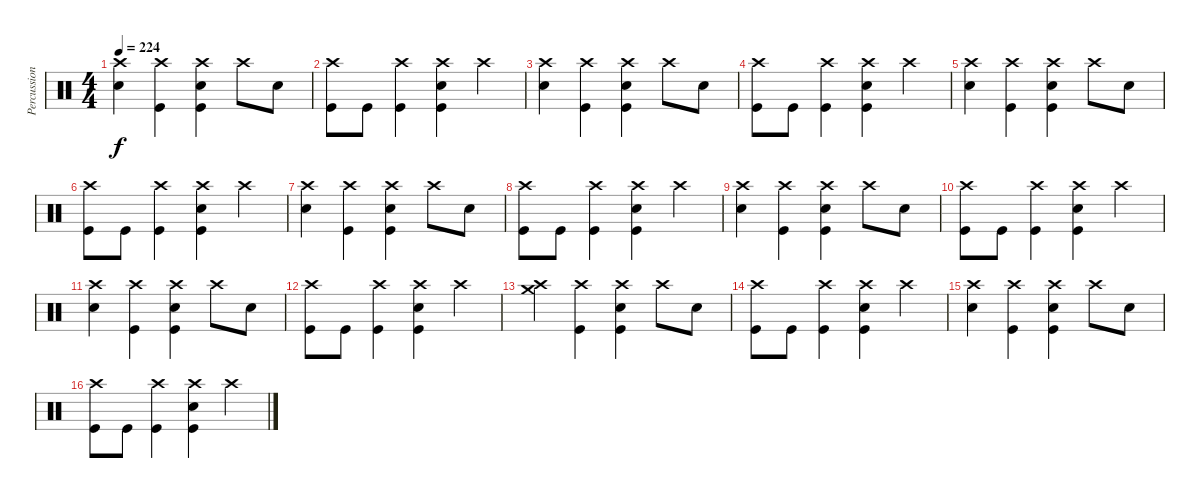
\track ("Percussion" "Percussion") {instrument percussion}
\staff {score}
\articulation defaults
\ts (4 4)
\tempo 224
\clef neutral
\ks c
("Crash high (hit)" "Electric Snare (hit)").4{dy f} ("Crash high (hit)" "Kick (hit)").4 ("Crash high (hit)" "Electric Snare (hit)" "Kick (hit)").4 "Crash high (hit)".8 "Electric Snare (hit)".8 |
("Crash high (hit)" "Kick (hit)").8 "Kick (hit)".8 ("Crash high (hit)" "Kick (hit)").4 ("Crash high (hit)" "Electric Snare (hit)" "Kick (hit)").4 "Crash high (hit)".4 |
("Crash high (hit)" "Electric Snare (hit)").4 ("Crash high (hit)" "Kick (hit)").4 ("Crash high (hit)" "Electric Snare (hit)" "Kick (hit)").4 "Crash high (hit)".8 "Electric Snare (hit)".8 |
("Crash high (hit)" "Kick (hit)").8 "Kick (hit)".8 ("Crash high (hit)" "Kick (hit)").4 ("Crash high (hit)" "Electric Snare (hit)" "Kick (hit)").4 "Crash high (hit)".4 |
("Crash high (hit)" "Electric Snare (hit)").4 ("Crash high (hit)" "Kick (hit)").4 ("Crash high (hit)" "Electric Snare (hit)" "Kick (hit)").4 "Crash high (hit)".8 "Electric Snare (hit)".8 |
("Crash high (hit)" "Kick (hit)").8 "Kick (hit)".8 ("Crash high (hit)" "Kick (hit)").4 ("Crash high (hit)" "Electric Snare (hit)" "Kick (hit)").4 "Crash high (hit)".4 |
("Crash high (hit)" "Electric Snare (hit)").4 ("Crash high (hit)" "Kick (hit)").4 ("Crash high (hit)" "Electric Snare (hit)" "Kick (hit)").4 "Crash high (hit)".8 "Electric Snare (hit)".8 |
("Crash high (hit)" "Kick (hit)").8 "Kick (hit)".8 ("Crash high (hit)" "Kick (hit)").4 ("Crash high (hit)" "Electric Snare (hit)" "Kick (hit)").4 "Crash high (hit)".4 |
("Crash high (hit)" "Electric Snare (hit)").4 ("Crash high (hit)" "Kick (hit)").4 ("Crash high (hit)" "Electric Snare (hit)" "Kick (hit)").4 "Crash high (hit)".8 "Electric Snare (hit)".8 |
("Crash high (hit)" "Kick (hit)").8 "Kick (hit)".8 ("Crash high (hit)" "Kick (hit)").4 ("Crash high (hit)" "Electric Snare (hit)" "Kick (hit)").4 "Crash high (hit)".4 |
("Crash high (hit)" "Electric Snare (hit)").4 ("Crash high (hit)" "Kick (hit)").4 ("Crash high (hit)" "Electric Snare (hit)" "Kick (hit)").4 "Crash high (hit)".8 "Electric Snare (hit)".8 |
("Crash high (hit)" "Kick (hit)").8 "Kick (hit)".8 ("Crash high (hit)" "Kick (hit)").4 ("Crash high (hit)" "Electric Snare (hit)" "Kick (hit)").4 "Crash high (hit)".4 |
("Crash high (hit)" "Crash medium (hit)").4 ("Crash high (hit)" "Kick (hit)").4 ("Crash high (hit)" "Electric Snare (hit)" "Kick (hit)").4 "Crash high (hit)".8 "Electric Snare (hit)".8 |
("Crash high (hit)" "Kick (hit)").8 "Kick (hit)".8 ("Crash high (hit)" "Kick (hit)").4 ("Crash high (hit)" "Electric Snare (hit)" "Kick (hit)").4 "Crash high (hit)".4 |
("Crash high (hit)" "Electric Snare (hit)").4 ("Crash high (hit)" "Kick (hit)").4 ("Crash high (hit)" "Electric Snare (hit)" "Kick (hit)").4 "Crash high (hit)".8 "Electric Snare (hit)".8 |
("Crash high (hit)" "Kick (hit)").8 "Kick (hit)".8 ("Crash high (hit)" "Kick (hit)").4 ("Crash high (hit)" "Electric Snare (hit)" "Kick (hit)").4 "Crash high (hit)".4
